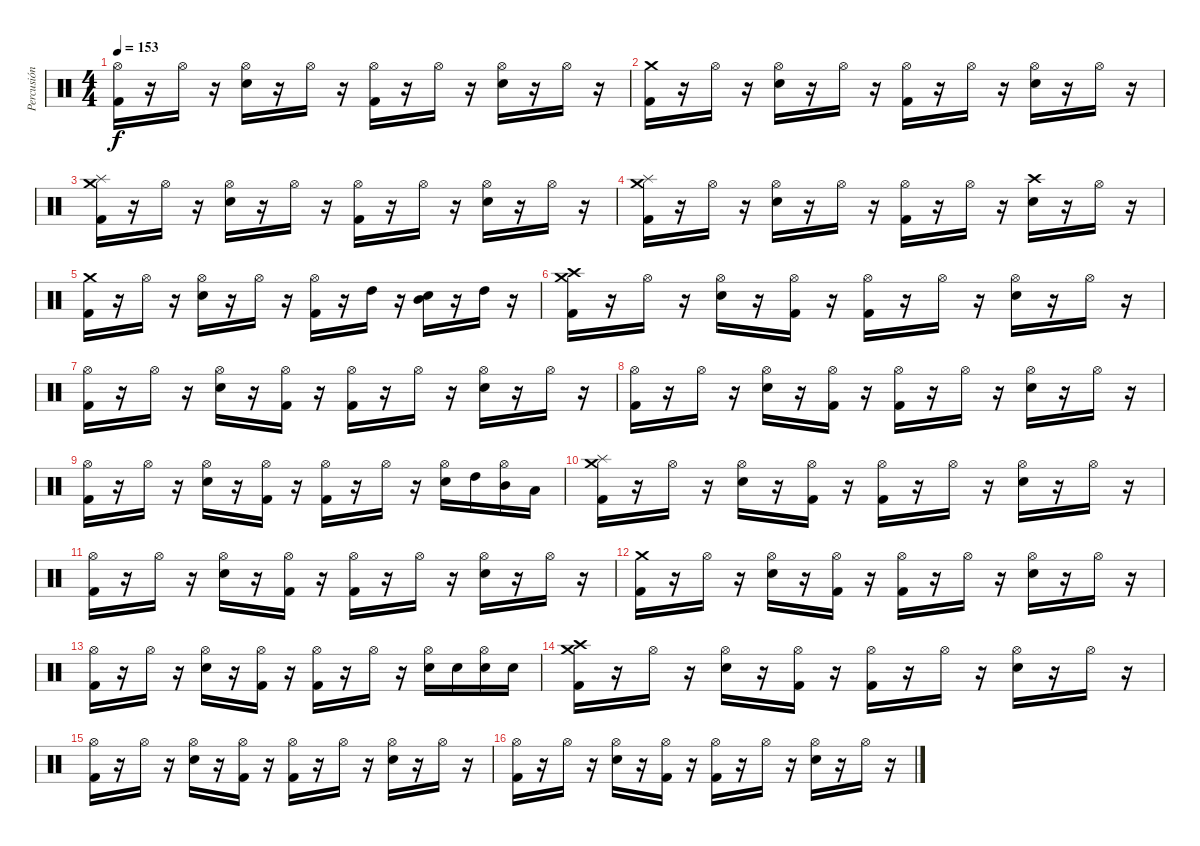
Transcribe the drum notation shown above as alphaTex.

\track ("Percusión" "Percusión") {instrument percussion}
\staff {score}
\articulation defaults
\ts (4 4)
\tempo 153
\clef neutral
\ks c
("Kick (hit) 2" "Hi-Hat (open)").16{dy f} r.16 "Hi-Hat (open)".16 r.16 ("Electric Snare (hit)" "Hi-Hat (open)").16 r.16 "Hi-Hat (open)".16 r.16 ("Kick (hit) 2" "Hi-Hat (open)").16 r.16 "Hi-Hat (open)".16 r.16 ("Electric Snare (hit)" "Hi-Hat (open)").16 r.16 "Hi-Hat (open)".16 r.16 |
("Kick (hit) 2" "Crash medium (hit)").16 r.16 "Hi-Hat (open)".16 r.16 ("Electric Snare (hit)" "Hi-Hat (open)").16 r.16 "Hi-Hat (open)".16 r.16 ("Kick (hit) 2" "Hi-Hat (open)").16 r.16 "Hi-Hat (open)".16 r.16 ("Electric Snare (hit)" "Hi-Hat (open)").16 r.16 "Hi-Hat (open)".16 r.16 |
("Kick (hit) 2" "Crash medium (hit)" "Splash (hit)").16 r.16 "Hi-Hat (open)".16 r.16 ("Electric Snare (hit)" "Hi-Hat (open)").16 r.16 "Hi-Hat (open)".16 r.16 ("Kick (hit) 2" "Hi-Hat (open)").16 r.16 "Hi-Hat (open)".16 r.16 ("Electric Snare (hit)" "Hi-Hat (open)").16 r.16 "Hi-Hat (open)".16 r.16 |
("Kick (hit) 2" "Crash medium (hit)" "Splash (hit)").16 r.16 "Hi-Hat (open)".16 r.16 ("Electric Snare (hit)" "Hi-Hat (open)").16 r.16 "Hi-Hat (open)".16 r.16 ("Kick (hit) 2" "Hi-Hat (open)").16 r.16 "Hi-Hat (open)".16 r.16 ("Electric Snare (hit)" "Crash high (hit)").16 r.16 "Hi-Hat (open)".16 r.16 |
("Kick (hit) 2" "Crash medium (hit)").16 r.16 "Hi-Hat (open)".16 r.16 ("Snare (hit) 2" "Hi-Hat (open)").16 r.16 "Hi-Hat (open)".16 r.16 ("Kick (hit) 2" "Hi-Hat (open)").16 r.16 "High Tom (hit)".16 r.16 ("Mid Tom (hit)" "Snare (hit) 2").16 r.16 "High Tom (hit)".16 r.16 |
("Kick (hit) 2" "Crash medium (hit)" "Crash high (hit)").16 r.16 "Hi-Hat (open)".16 r.16 ("Snare (hit) 2" "Hi-Hat (open)").16 r.16 ("Kick (hit) 2" "Hi-Hat (open)").16 r.16 ("Kick (hit) 2" "Hi-Hat (open)").16 r.16 "Hi-Hat (open)".16 r.16 ("Snare (hit) 2" "Hi-Hat (open)").16 r.16 "Hi-Hat (open)".16 r.16 |
("Kick (hit) 2" "Hi-Hat (open)").16 r.16 "Hi-Hat (open)".16 r.16 ("Electric Snare (hit)" "Hi-Hat (open)").16 r.16 ("Kick (hit) 2" "Hi-Hat (open)").16 r.16 ("Kick (hit) 2" "Hi-Hat (open)").16 r.16 "Hi-Hat (open)".16 r.16 ("Electric Snare (hit)" "Hi-Hat (open)").16 r.16 "Hi-Hat (open)".16 r.16 |
("Kick (hit) 2" "Hi-Hat (open)").16 r.16 "Hi-Hat (open)".16 r.16 ("Electric Snare (hit)" "Hi-Hat (open)").16 r.16 ("Kick (hit) 2" "Hi-Hat (open)").16 r.16 ("Kick (hit) 2" "Hi-Hat (open)").16 r.16 "Hi-Hat (open)".16 r.16 ("Electric Snare (hit)" "Hi-Hat (open)").16 r.16 "Hi-Hat (open)".16 r.16 |
("Kick (hit) 2" "Hi-Hat (open)").16 r.16 "Hi-Hat (open)".16 r.16 ("Electric Snare (hit)" "Hi-Hat (open)").16 r.16 ("Kick (hit) 2" "Hi-Hat (open)").16 r.16 ("Kick (hit) 2" "Hi-Hat (open)").16 r.16 "Hi-Hat (open)".16 r.16 ("Electric Snare (hit)" "Hi-Hat (open)").16 "High Tom (hit)".16 ("Mid Tom (hit)" "Hi-Hat (open)").16 "Low Tom (hit)".16 |
("Kick (hit) 2" "Crash medium (hit)" "Splash (hit)").16 r.16 "Hi-Hat (open)".16 r.16 ("Electric Snare (hit)" "Hi-Hat (open)").16 r.16 ("Kick (hit) 2" "Hi-Hat (open)").16 r.16 ("Kick (hit) 2" "Hi-Hat (open)").16 r.16 "Hi-Hat (open)".16 r.16 ("Electric Snare (hit)" "Hi-Hat (open)").16 r.16 "Hi-Hat (open)".16 r.16 |
("Kick (hit) 2" "Hi-Hat (open)").16 r.16 "Hi-Hat (open)".16 r.16 ("Electric Snare (hit)" "Hi-Hat (open)").16 r.16 ("Kick (hit) 2" "Hi-Hat (open)").16 r.16 ("Kick (hit) 2" "Hi-Hat (open)").16 r.16 "Hi-Hat (open)".16 r.16 ("Electric Snare (hit)" "Hi-Hat (open)").16 r.16 "Hi-Hat (open)".16 r.16 |
("Kick (hit) 2" "Crash medium (hit)").16 r.16 "Hi-Hat (open)".16 r.16 ("Electric Snare (hit)" "Hi-Hat (open)").16 r.16 ("Kick (hit) 2" "Hi-Hat (open)").16 r.16 ("Kick (hit) 2" "Hi-Hat (open)").16 r.16 "Hi-Hat (open)".16 r.16 ("Electric Snare (hit)" "Hi-Hat (open)").16 r.16 "Hi-Hat (open)".16 r.16 |
("Kick (hit) 2" "Hi-Hat (open)").16 r.16 "Hi-Hat (open)".16 r.16 ("Electric Snare (hit)" "Hi-Hat (open)").16 r.16 ("Kick (hit) 2" "Hi-Hat (open)").16 r.16 ("Kick (hit) 2" "Hi-Hat (open)").16 r.16 "Hi-Hat (open)".16 r.16 ("Electric Snare (hit)" "Hi-Hat (open)").16 "Electric Snare (hit)".16 ("Electric Snare (hit)" "Hi-Hat (open)").16 "Electric Snare (hit)".16 |
("Kick (hit) 2" "Crash medium (hit)" "Crash high (hit)").16 r.16 "Hi-Hat (open)".16 r.16 ("Snare (hit) 2" "Hi-Hat (open)").16 r.16 ("Kick (hit) 2" "Hi-Hat (open)").16 r.16 ("Kick (hit) 2" "Hi-Hat (open)").16 r.16 "Hi-Hat (open)".16 r.16 ("Snare (hit) 2" "Hi-Hat (open)").16 r.16 "Hi-Hat (open)".16 r.16 |
("Kick (hit) 2" "Hi-Hat (open)").16 r.16 "Hi-Hat (open)".16 r.16 ("Electric Snare (hit)" "Hi-Hat (open)").16 r.16 ("Kick (hit) 2" "Hi-Hat (open)").16 r.16 ("Kick (hit) 2" "Hi-Hat (open)").16 r.16 "Hi-Hat (open)".16 r.16 ("Electric Snare (hit)" "Hi-Hat (open)").16 r.16 "Hi-Hat (open)".16 r.16 |
("Kick (hit) 2" "Hi-Hat (open)").16 r.16 "Hi-Hat (open)".16 r.16 ("Electric Snare (hit)" "Hi-Hat (open)").16 r.16 ("Kick (hit) 2" "Hi-Hat (open)").16 r.16 ("Kick (hit) 2" "Hi-Hat (open)").16 r.16 "Hi-Hat (open)".16 r.16 ("Electric Snare (hit)" "Hi-Hat (open)").16 r.16 "Hi-Hat (open)".16 r.16
